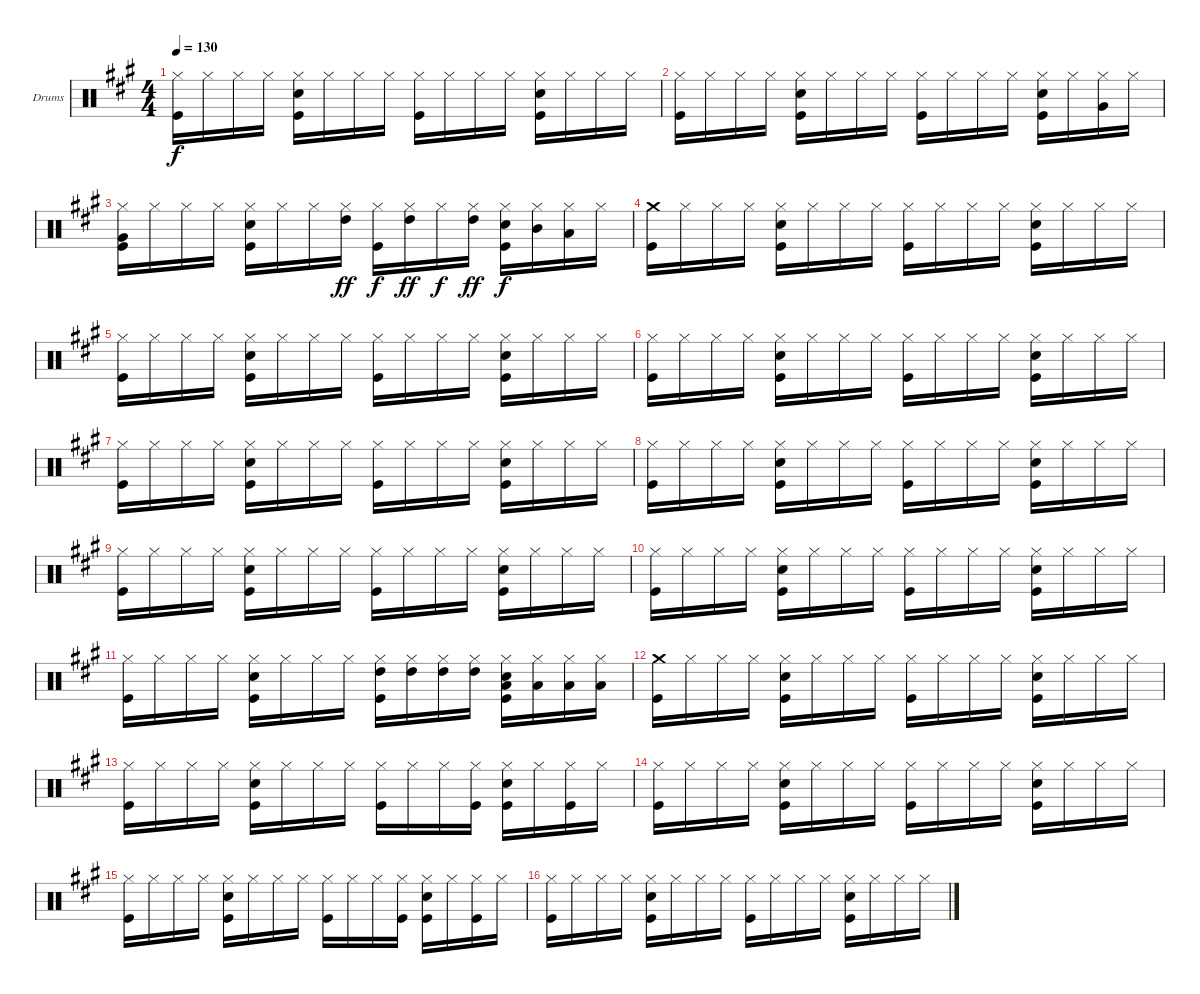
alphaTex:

\bracketExtendMode groupsimilarinstruments
\firstSystemTrackNameOrientation horizontal
\otherSystemsTrackNameOrientation horizontal
\track ("DRUMS" "Drums") {instrument percussion}
\staff {score}
\articulation defaults
\ts (4 4)
\tempo 130
\clef neutral
\ks f#minor
("Hi-Hat (closed)" "Kick (hit)").16{dy f} "Hi-Hat (closed)".16 "Hi-Hat (closed)".16 "Hi-Hat (closed)".16 ("Hi-Hat (closed)" "Snare (hit) 2" "Kick (hit)").16 "Hi-Hat (closed)".16 "Hi-Hat (closed)".16 "Hi-Hat (closed)".16 ("Hi-Hat (closed)" "Kick (hit)").16 "Hi-Hat (closed)".16 "Hi-Hat (closed)".16 "Hi-Hat (closed)".16 ("Hi-Hat (closed)" "Snare (hit) 2" "Kick (hit)").16 "Hi-Hat (closed)".16 "Hi-Hat (closed)".16 "Hi-Hat (closed)".16 |
("Hi-Hat (closed)" "Kick (hit)").16 "Hi-Hat (closed)".16 "Hi-Hat (closed)".16 "Hi-Hat (closed)".16 ("Hi-Hat (closed)" "Snare (hit) 2" "Kick (hit)").16 "Hi-Hat (closed)".16 "Hi-Hat (closed)".16 "Hi-Hat (closed)".16 ("Hi-Hat (closed)" "Kick (hit)").16 "Hi-Hat (closed)".16 "Hi-Hat (closed)".16 "Hi-Hat (closed)".16 ("Hi-Hat (closed)" "Snare (hit) 2" "Kick (hit)").16 "Hi-Hat (closed)".16 ("Hi-Hat (closed)" "Very Low Tom (hit)").16 "Hi-Hat (closed)".16 |
("Hi-Hat (closed)" "Kick (hit)" "Very Low Tom (hit)").16 "Hi-Hat (closed)".16 "Hi-Hat (closed)".16 "Hi-Hat (closed)".16 ("Hi-Hat (closed)" "Snare (hit) 2" "Kick (hit)").16 "Hi-Hat (closed)".16 "Hi-Hat (closed)".16 ("High Tom (hit)" "Hi-Hat (closed)").16{dy ff} ("Hi-Hat (closed)" "Kick (hit)").16{dy f} ("High Tom (hit)" "Hi-Hat (closed)").16{dy ff} "Hi-Hat (closed)".16{dy f} ("High Tom (hit)" "Hi-Hat (closed)").16{dy ff} ("Hi-Hat (closed)" "Snare (hit) 2" "Kick (hit)").16{dy f} ("Hi-Hat (closed)" "Mid Tom (hit)").16 ("Low Tom (hit)" "Hi-Hat (closed)").16 "Hi-Hat (closed)".16 |
("Kick (hit)" "Crash medium (hit)").16 "Hi-Hat (closed)".16 "Hi-Hat (closed)".16 "Hi-Hat (closed)".16 ("Hi-Hat (closed)" "Snare (hit) 2" "Kick (hit)").16 "Hi-Hat (closed)".16 "Hi-Hat (closed)".16 "Hi-Hat (closed)".16 ("Hi-Hat (closed)" "Kick (hit)").16 "Hi-Hat (closed)".16 "Hi-Hat (closed)".16 "Hi-Hat (closed)".16 ("Hi-Hat (closed)" "Snare (hit) 2" "Kick (hit)").16 "Hi-Hat (closed)".16 "Hi-Hat (closed)".16 "Hi-Hat (closed)".16 |
("Kick (hit)" "Hi-Hat (closed)").16 "Hi-Hat (closed)".16 "Hi-Hat (closed)".16 "Hi-Hat (closed)".16 ("Hi-Hat (closed)" "Snare (hit) 2" "Kick (hit)").16 "Hi-Hat (closed)".16 "Hi-Hat (closed)".16 "Hi-Hat (closed)".16 ("Hi-Hat (closed)" "Kick (hit)").16 "Hi-Hat (closed)".16 "Hi-Hat (closed)".16 "Hi-Hat (closed)".16 ("Hi-Hat (closed)" "Snare (hit) 2" "Kick (hit)").16 "Hi-Hat (closed)".16 "Hi-Hat (closed)".16 "Hi-Hat (closed)".16 |
("Hi-Hat (closed)" "Kick (hit)").16 "Hi-Hat (closed)".16 "Hi-Hat (closed)".16 "Hi-Hat (closed)".16 ("Hi-Hat (closed)" "Snare (hit) 2" "Kick (hit)").16 "Hi-Hat (closed)".16 "Hi-Hat (closed)".16 "Hi-Hat (closed)".16 ("Hi-Hat (closed)" "Kick (hit)").16 "Hi-Hat (closed)".16 "Hi-Hat (closed)".16 "Hi-Hat (closed)".16 ("Hi-Hat (closed)" "Snare (hit) 2" "Kick (hit)").16 "Hi-Hat (closed)".16 "Hi-Hat (closed)".16 "Hi-Hat (closed)".16 |
("Hi-Hat (closed)" "Kick (hit)").16 "Hi-Hat (closed)".16 "Hi-Hat (closed)".16 "Hi-Hat (closed)".16 ("Hi-Hat (closed)" "Snare (hit) 2" "Kick (hit)").16 "Hi-Hat (closed)".16 "Hi-Hat (closed)".16 "Hi-Hat (closed)".16 ("Hi-Hat (closed)" "Kick (hit)").16 "Hi-Hat (closed)".16 "Hi-Hat (closed)".16 "Hi-Hat (closed)".16 ("Hi-Hat (closed)" "Snare (hit) 2" "Kick (hit)").16 "Hi-Hat (closed)".16 "Hi-Hat (closed)".16 "Hi-Hat (closed)".16 |
("Kick (hit)" "Hi-Hat (closed)").16 "Hi-Hat (closed)".16 "Hi-Hat (closed)".16 "Hi-Hat (closed)".16 ("Hi-Hat (closed)" "Snare (hit) 2" "Kick (hit)").16 "Hi-Hat (closed)".16 "Hi-Hat (closed)".16 "Hi-Hat (closed)".16 ("Hi-Hat (closed)" "Kick (hit)").16 "Hi-Hat (closed)".16 "Hi-Hat (closed)".16 "Hi-Hat (closed)".16 ("Hi-Hat (closed)" "Snare (hit) 2" "Kick (hit)").16 "Hi-Hat (closed)".16 "Hi-Hat (closed)".16 "Hi-Hat (closed)".16 |
("Hi-Hat (closed)" "Kick (hit)").16 "Hi-Hat (closed)".16 "Hi-Hat (closed)".16 "Hi-Hat (closed)".16 ("Hi-Hat (closed)" "Snare (hit) 2" "Kick (hit)").16 "Hi-Hat (closed)".16 "Hi-Hat (closed)".16 "Hi-Hat (closed)".16 ("Hi-Hat (closed)" "Kick (hit)").16 "Hi-Hat (closed)".16 "Hi-Hat (closed)".16 "Hi-Hat (closed)".16 ("Hi-Hat (closed)" "Snare (hit) 2" "Kick (hit)").16 "Hi-Hat (closed)".16 "Hi-Hat (closed)".16 "Hi-Hat (closed)".16 |
("Hi-Hat (closed)" "Kick (hit)").16 "Hi-Hat (closed)".16 "Hi-Hat (closed)".16 "Hi-Hat (closed)".16 ("Hi-Hat (closed)" "Snare (hit) 2" "Kick (hit)").16 "Hi-Hat (closed)".16 "Hi-Hat (closed)".16 "Hi-Hat (closed)".16 ("Hi-Hat (closed)" "Kick (hit)").16 "Hi-Hat (closed)".16 "Hi-Hat (closed)".16 "Hi-Hat (closed)".16 ("Hi-Hat (closed)" "Snare (hit) 2" "Kick (hit)").16 "Hi-Hat (closed)".16 "Hi-Hat (closed)".16 "Hi-Hat (closed)".16 |
("Hi-Hat (closed)" "Kick (hit)").16 "Hi-Hat (closed)".16 "Hi-Hat (closed)".16 "Hi-Hat (closed)".16 ("Hi-Hat (closed)" "Snare (hit) 2" "Kick (hit)").16 "Hi-Hat (closed)".16 "Hi-Hat (closed)".16 "Hi-Hat (closed)".16 ("High Tom (hit)" "Hi-Hat (closed)" "Kick (hit)").16 ("High Tom (hit)" "Hi-Hat (closed)").16 ("High Tom (hit)" "Hi-Hat (closed)").16 ("High Tom (hit)" "Hi-Hat (closed)").16 ("Low Tom (hit)" "Hi-Hat (closed)" "Snare (hit) 2" "Kick (hit)").16 ("Low Tom (hit)" "Hi-Hat (closed)").16 ("Low Tom (hit)" "Hi-Hat (closed)").16 ("Low Tom (hit)" "Hi-Hat (closed)").16 |
("Kick (hit)" "Crash medium (hit)").16 "Hi-Hat (closed)".16 "Hi-Hat (closed)".16 "Hi-Hat (closed)".16 ("Hi-Hat (closed)" "Snare (hit) 2" "Kick (hit)").16 "Hi-Hat (closed)".16 "Hi-Hat (closed)".16 "Hi-Hat (closed)".16 ("Hi-Hat (closed)" "Kick (hit)").16 "Hi-Hat (closed)".16 "Hi-Hat (closed)".16 "Hi-Hat (closed)".16 ("Hi-Hat (closed)" "Snare (hit) 2" "Kick (hit)").16 "Hi-Hat (closed)".16 "Hi-Hat (closed)".16 "Hi-Hat (closed)".16 |
("Hi-Hat (closed)" "Kick (hit)").16 "Hi-Hat (closed)".16 "Hi-Hat (closed)".16 "Hi-Hat (closed)".16 ("Hi-Hat (closed)" "Snare (hit) 2" "Kick (hit)").16 "Hi-Hat (closed)".16 "Hi-Hat (closed)".16 "Hi-Hat (closed)".16 ("Hi-Hat (closed)" "Kick (hit)").16 "Hi-Hat (closed)".16 "Hi-Hat (closed)".16 ("Hi-Hat (closed)" "Kick (hit)").16 ("Hi-Hat (closed)" "Snare (hit) 2" "Kick (hit)").16 "Hi-Hat (closed)".16 ("Hi-Hat (closed)" "Kick (hit)").16 "Hi-Hat (closed)".16 |
("Hi-Hat (closed)" "Kick (hit)").16 "Hi-Hat (closed)".16 "Hi-Hat (closed)".16 "Hi-Hat (closed)".16 ("Hi-Hat (closed)" "Snare (hit) 2" "Kick (hit)").16 "Hi-Hat (closed)".16 "Hi-Hat (closed)".16 "Hi-Hat (closed)".16 ("Hi-Hat (closed)" "Kick (hit)").16 "Hi-Hat (closed)".16 "Hi-Hat (closed)".16 "Hi-Hat (closed)".16 ("Hi-Hat (closed)" "Snare (hit) 2" "Kick (hit)").16 "Hi-Hat (closed)".16 "Hi-Hat (closed)".16 "Hi-Hat (closed)".16 |
("Hi-Hat (closed)" "Kick (hit)").16 "Hi-Hat (closed)".16 "Hi-Hat (closed)".16 "Hi-Hat (closed)".16 ("Hi-Hat (closed)" "Snare (hit) 2" "Kick (hit)").16 "Hi-Hat (closed)".16 "Hi-Hat (closed)".16 "Hi-Hat (closed)".16 ("Hi-Hat (closed)" "Kick (hit)").16 "Hi-Hat (closed)".16 "Hi-Hat (closed)".16 ("Hi-Hat (closed)" "Kick (hit)").16 ("Hi-Hat (closed)" "Snare (hit) 2" "Kick (hit)").16 "Hi-Hat (closed)".16 ("Hi-Hat (closed)" "Kick (hit)").16 "Hi-Hat (closed)".16 |
("Hi-Hat (closed)" "Kick (hit)").16 "Hi-Hat (closed)".16 "Hi-Hat (closed)".16 "Hi-Hat (closed)".16 ("Hi-Hat (closed)" "Snare (hit) 2" "Kick (hit)").16 "Hi-Hat (closed)".16 "Hi-Hat (closed)".16 "Hi-Hat (closed)".16 ("Hi-Hat (closed)" "Kick (hit)").16 "Hi-Hat (closed)".16 "Hi-Hat (closed)".16 "Hi-Hat (closed)".16 ("Hi-Hat (closed)" "Snare (hit) 2" "Kick (hit)").16 "Hi-Hat (closed)".16 "Hi-Hat (closed)".16 "Hi-Hat (closed)".16
